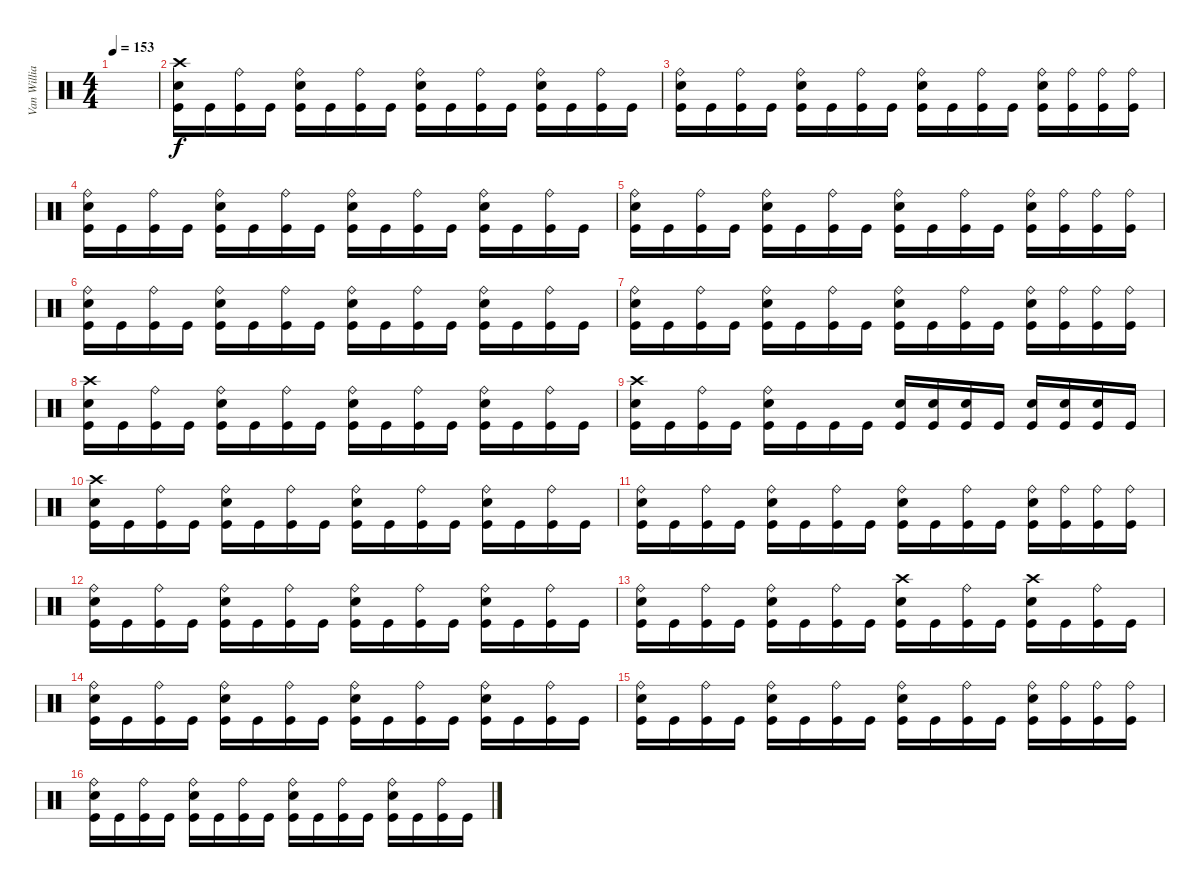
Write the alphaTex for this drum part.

\track ("Van Williams" "Van Willia") {instrument percussion}
\staff {score}
\articulation defaults
\ts (4 4)
\tempo 153
\clef neutral
\ks c
|
("Crash high (hit)" "Electric Snare (hit)" "Kick (hit)").16 "Kick (hit)".16 ("Ride (bell)" "Kick (hit)").16 "Kick (hit)".16 ("Ride (bell)" "Electric Snare (hit)" "Kick (hit)").16 "Kick (hit)".16 ("Ride (bell)" "Kick (hit)").16 "Kick (hit)".16 ("Ride (bell)" "Electric Snare (hit)" "Kick (hit)").16 "Kick (hit)".16 ("Ride (bell)" "Kick (hit)").16 "Kick (hit)".16 ("Ride (bell)" "Electric Snare (hit)" "Kick (hit)").16 "Kick (hit)".16 ("Ride (bell)" "Kick (hit)").16 "Kick (hit)".16 |
("Ride (bell)" "Electric Snare (hit)" "Kick (hit)").16 "Kick (hit)".16 ("Ride (bell)" "Kick (hit)").16 "Kick (hit)".16 ("Ride (bell)" "Electric Snare (hit)" "Kick (hit)").16 "Kick (hit)".16 ("Ride (bell)" "Kick (hit)").16 "Kick (hit)".16 ("Ride (bell)" "Electric Snare (hit)" "Kick (hit)").16 "Kick (hit)".16 ("Ride (bell)" "Kick (hit)").16 "Kick (hit)".16 ("Ride (bell)" "Electric Snare (hit)" "Kick (hit)").16 ("Ride (bell)" "Kick (hit)").16 ("Ride (bell)" "Kick (hit)").16 ("Ride (bell)" "Kick (hit)").16 |
("Ride (bell)" "Electric Snare (hit)" "Kick (hit)").16 "Kick (hit)".16 ("Ride (bell)" "Kick (hit)").16 "Kick (hit)".16 ("Ride (bell)" "Electric Snare (hit)" "Kick (hit)").16 "Kick (hit)".16 ("Ride (bell)" "Kick (hit)").16 "Kick (hit)".16 ("Ride (bell)" "Electric Snare (hit)" "Kick (hit)").16 "Kick (hit)".16 ("Ride (bell)" "Kick (hit)").16 "Kick (hit)".16 ("Ride (bell)" "Electric Snare (hit)" "Kick (hit)").16 "Kick (hit)".16 ("Ride (bell)" "Kick (hit)").16 "Kick (hit)".16 |
("Ride (bell)" "Electric Snare (hit)" "Kick (hit)").16 "Kick (hit)".16 ("Ride (bell)" "Kick (hit)").16 "Kick (hit)".16 ("Ride (bell)" "Electric Snare (hit)" "Kick (hit)").16 "Kick (hit)".16 ("Ride (bell)" "Kick (hit)").16 "Kick (hit)".16 ("Ride (bell)" "Electric Snare (hit)" "Kick (hit)").16 "Kick (hit)".16 ("Ride (bell)" "Kick (hit)").16 "Kick (hit)".16 ("Ride (bell)" "Electric Snare (hit)" "Kick (hit)").16 ("Ride (bell)" "Kick (hit)").16 ("Ride (bell)" "Kick (hit)").16 ("Ride (bell)" "Kick (hit)").16 |
("Ride (bell)" "Electric Snare (hit)" "Kick (hit)").16 "Kick (hit)".16 ("Ride (bell)" "Kick (hit)").16 "Kick (hit)".16 ("Ride (bell)" "Electric Snare (hit)" "Kick (hit)").16 "Kick (hit)".16 ("Ride (bell)" "Kick (hit)").16 "Kick (hit)".16 ("Ride (bell)" "Electric Snare (hit)" "Kick (hit)").16 "Kick (hit)".16 ("Ride (bell)" "Kick (hit)").16 "Kick (hit)".16 ("Ride (bell)" "Electric Snare (hit)" "Kick (hit)").16 "Kick (hit)".16 ("Ride (bell)" "Kick (hit)").16 "Kick (hit)".16 |
("Ride (bell)" "Electric Snare (hit)" "Kick (hit)").16 "Kick (hit)".16 ("Ride (bell)" "Kick (hit)").16 "Kick (hit)".16 ("Ride (bell)" "Electric Snare (hit)" "Kick (hit)").16 "Kick (hit)".16 ("Ride (bell)" "Kick (hit)").16 "Kick (hit)".16 ("Ride (bell)" "Electric Snare (hit)" "Kick (hit)").16 "Kick (hit)".16 ("Ride (bell)" "Kick (hit)").16 "Kick (hit)".16 ("Ride (bell)" "Electric Snare (hit)" "Kick (hit)").16 ("Ride (bell)" "Kick (hit)").16 ("Ride (bell)" "Kick (hit)").16 ("Ride (bell)" "Kick (hit)").16 |
("Crash high (hit)" "Electric Snare (hit)" "Kick (hit)").16 "Kick (hit)".16 ("Ride (bell)" "Kick (hit)").16 "Kick (hit)".16 ("Ride (bell)" "Electric Snare (hit)" "Kick (hit)").16 "Kick (hit)".16 ("Ride (bell)" "Kick (hit)").16 "Kick (hit)".16 ("Ride (bell)" "Electric Snare (hit)" "Kick (hit)").16 "Kick (hit)".16 ("Ride (bell)" "Kick (hit)").16 "Kick (hit)".16 ("Ride (bell)" "Electric Snare (hit)" "Kick (hit)").16 "Kick (hit)".16 ("Ride (bell)" "Kick (hit)").16 "Kick (hit)".16 |
("Crash high (hit)" "Electric Snare (hit)" "Kick (hit)").16 "Kick (hit)".16 ("Ride (bell)" "Kick (hit)").16 "Kick (hit)".16 ("Ride (bell)" "Electric Snare (hit)" "Kick (hit)").16 "Kick (hit)".16 "Kick (hit)".16 "Kick (hit)".16 ("Electric Snare (hit)" "Kick (hit)").16 ("Electric Snare (hit)" "Kick (hit)").16 ("Electric Snare (hit)" "Kick (hit)").16 "Kick (hit)".16 ("Electric Snare (hit)" "Kick (hit)").16 ("Electric Snare (hit)" "Kick (hit)").16 ("Electric Snare (hit)" "Kick (hit)").16 "Kick (hit)".16 |
("Crash high (hit)" "Electric Snare (hit)" "Kick (hit)").16 "Kick (hit)".16 ("Ride (bell)" "Kick (hit)").16 "Kick (hit)".16 ("Ride (bell)" "Electric Snare (hit)" "Kick (hit)").16 "Kick (hit)".16 ("Ride (bell)" "Kick (hit)").16 "Kick (hit)".16 ("Ride (bell)" "Electric Snare (hit)" "Kick (hit)").16 "Kick (hit)".16 ("Ride (bell)" "Kick (hit)").16 "Kick (hit)".16 ("Ride (bell)" "Electric Snare (hit)" "Kick (hit)").16 "Kick (hit)".16 ("Ride (bell)" "Kick (hit)").16 "Kick (hit)".16 |
("Ride (bell)" "Electric Snare (hit)" "Kick (hit)").16 "Kick (hit)".16 ("Ride (bell)" "Kick (hit)").16 "Kick (hit)".16 ("Ride (bell)" "Electric Snare (hit)" "Kick (hit)").16 "Kick (hit)".16 ("Ride (bell)" "Kick (hit)").16 "Kick (hit)".16 ("Ride (bell)" "Electric Snare (hit)" "Kick (hit)").16 "Kick (hit)".16 ("Ride (bell)" "Kick (hit)").16 "Kick (hit)".16 ("Ride (bell)" "Electric Snare (hit)" "Kick (hit)").16 ("Ride (bell)" "Kick (hit)").16 ("Ride (bell)" "Kick (hit)").16 ("Ride (bell)" "Kick (hit)").16 |
("Ride (bell)" "Electric Snare (hit)" "Kick (hit)").16 "Kick (hit)".16 ("Ride (bell)" "Kick (hit)").16 "Kick (hit)".16 ("Ride (bell)" "Electric Snare (hit)" "Kick (hit)").16 "Kick (hit)".16 ("Ride (bell)" "Kick (hit)").16 "Kick (hit)".16 ("Ride (bell)" "Electric Snare (hit)" "Kick (hit)").16 "Kick (hit)".16 ("Ride (bell)" "Kick (hit)").16 "Kick (hit)".16 ("Ride (bell)" "Electric Snare (hit)" "Kick (hit)").16 "Kick (hit)".16 ("Ride (bell)" "Kick (hit)").16 "Kick (hit)".16 |
("Ride (bell)" "Electric Snare (hit)" "Kick (hit)").16 "Kick (hit)".16 ("Ride (bell)" "Kick (hit)").16 "Kick (hit)".16 ("Ride (bell)" "Electric Snare (hit)" "Kick (hit)").16 "Kick (hit)".16 ("Ride (bell)" "Kick (hit)").16 "Kick (hit)".16 ("Crash high (hit)" "Electric Snare (hit)" "Kick (hit)").16 "Kick (hit)".16 ("Ride (bell)" "Kick (hit)").16 "Kick (hit)".16 ("Crash high (hit)" "Electric Snare (hit)" "Kick (hit)").16 "Kick (hit)".16 ("Ride (bell)" "Kick (hit)").16 "Kick (hit)".16 |
("Ride (bell)" "Electric Snare (hit)" "Kick (hit)").16 "Kick (hit)".16 ("Ride (bell)" "Kick (hit)").16 "Kick (hit)".16 ("Ride (bell)" "Electric Snare (hit)" "Kick (hit)").16 "Kick (hit)".16 ("Ride (bell)" "Kick (hit)").16 "Kick (hit)".16 ("Ride (bell)" "Electric Snare (hit)" "Kick (hit)").16 "Kick (hit)".16 ("Ride (bell)" "Kick (hit)").16 "Kick (hit)".16 ("Ride (bell)" "Electric Snare (hit)" "Kick (hit)").16 "Kick (hit)".16 ("Ride (bell)" "Kick (hit)").16 "Kick (hit)".16 |
("Ride (bell)" "Electric Snare (hit)" "Kick (hit)").16 "Kick (hit)".16 ("Ride (bell)" "Kick (hit)").16 "Kick (hit)".16 ("Ride (bell)" "Electric Snare (hit)" "Kick (hit)").16 "Kick (hit)".16 ("Ride (bell)" "Kick (hit)").16 "Kick (hit)".16 ("Ride (bell)" "Electric Snare (hit)" "Kick (hit)").16 "Kick (hit)".16 ("Ride (bell)" "Kick (hit)").16 "Kick (hit)".16 ("Ride (bell)" "Electric Snare (hit)" "Kick (hit)").16 ("Ride (bell)" "Kick (hit)").16 ("Ride (bell)" "Kick (hit)").16 ("Ride (bell)" "Kick (hit)").16 |
("Ride (bell)" "Electric Snare (hit)" "Kick (hit)").16 "Kick (hit)".16 ("Ride (bell)" "Kick (hit)").16 "Kick (hit)".16 ("Ride (bell)" "Electric Snare (hit)" "Kick (hit)").16 "Kick (hit)".16 ("Ride (bell)" "Kick (hit)").16 "Kick (hit)".16 ("Ride (bell)" "Electric Snare (hit)" "Kick (hit)").16 "Kick (hit)".16 ("Ride (bell)" "Kick (hit)").16 "Kick (hit)".16 ("Ride (bell)" "Electric Snare (hit)" "Kick (hit)").16 "Kick (hit)".16 ("Ride (bell)" "Kick (hit)").16 "Kick (hit)".16
